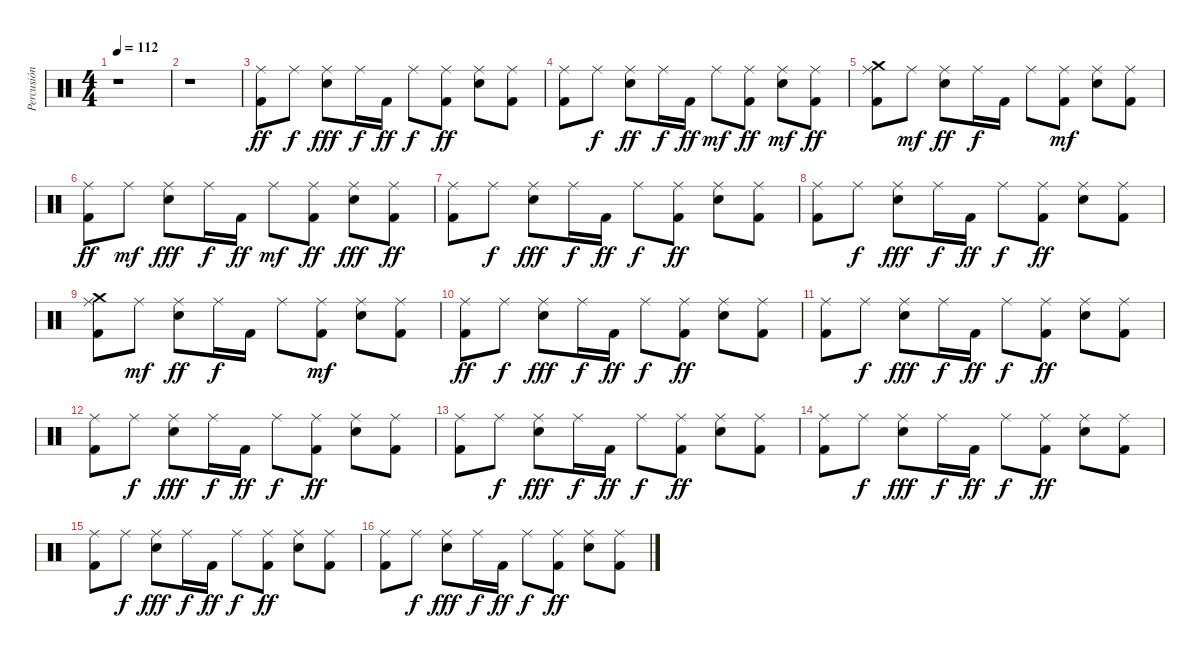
\track ("Percusión" "Percusión") {instrument percussion}
\staff {score}
\articulation defaults
\ts (4 4)
\tempo 112
\clef neutral
\ks c
r.1{dy ff} |
r.1 |
("Kick (hit) 2" "Ride (middle)").8 "Ride (middle)".8{dy f} ("Snare (hit) 2" "Ride (middle)").8{dy fff} "Ride (middle)".16{dy f} "Kick (hit) 2".16{dy ff} "Ride (middle)".8{dy f} ("Kick (hit) 2" "Ride (middle)").8{dy ff} ("Snare (hit) 2" "Ride (middle)").8 ("Kick (hit) 2" "Ride (middle)").8 |
("Kick (hit) 2" "Ride (middle)").8 "Ride (middle)".8{dy f} ("Snare (hit) 2" "Ride (middle)").8{dy ff} "Ride (middle)".16{dy f} "Kick (hit) 2".16{dy ff} "Ride (middle)".8{dy mf} ("Kick (hit) 2" "Ride (middle)").8{dy ff} ("Snare (hit) 2" "Ride (middle)").8{dy mf} ("Kick (hit) 2" "Ride (middle)").8{dy ff} |
("Kick (hit) 2" "Ride (middle)" "Crash medium (hit)").8 "Ride (middle)".8{dy mf} ("Snare (hit) 2" "Ride (middle)").8{dy ff} "Ride (middle)".16{dy f} "Kick (hit) 2".16 "Ride (middle)".8 ("Kick (hit) 2" "Ride (middle)").8{dy mf} ("Snare (hit) 2" "Ride (middle)").8 ("Kick (hit) 2" "Ride (middle)").8 |
("Kick (hit) 2" "Ride (middle)").8{dy ff} "Ride (middle)".8{dy mf} ("Snare (hit) 2" "Ride (middle)").8{dy fff} "Ride (middle)".16{dy f} "Kick (hit) 2".16{dy ff} "Ride (middle)".8{dy mf} ("Kick (hit) 2" "Ride (middle)").8{dy ff} ("Snare (hit) 2" "Ride (middle)").8{dy fff} ("Kick (hit) 2" "Ride (middle)").8{dy ff} |
("Kick (hit) 2" "Ride (middle)").8 "Ride (middle)".8{dy f} ("Snare (hit) 2" "Ride (middle)").8{dy fff} "Ride (middle)".16{dy f} "Kick (hit) 2".16{dy ff} "Ride (middle)".8{dy f} ("Kick (hit) 2" "Ride (middle)").8{dy ff} ("Snare (hit) 2" "Ride (middle)").8 ("Kick (hit) 2" "Ride (middle)").8 |
("Kick (hit) 2" "Ride (middle)").8 "Ride (middle)".8{dy f} ("Snare (hit) 2" "Ride (middle)").8{dy fff} "Ride (middle)".16{dy f} "Kick (hit) 2".16{dy ff} "Ride (middle)".8{dy f} ("Kick (hit) 2" "Ride (middle)").8{dy ff} ("Snare (hit) 2" "Ride (middle)").8 ("Kick (hit) 2" "Ride (middle)").8 |
("Kick (hit) 2" "Ride (middle)" "Crash medium (hit)").8 "Ride (middle)".8{dy mf} ("Snare (hit) 2" "Ride (middle)").8{dy ff} "Ride (middle)".16{dy f} "Kick (hit) 2".16 "Ride (middle)".8 ("Kick (hit) 2" "Ride (middle)").8{dy mf} ("Snare (hit) 2" "Ride (middle)").8 ("Kick (hit) 2" "Ride (middle)").8 |
("Kick (hit) 2" "Ride (middle)").8{dy ff} "Ride (middle)".8{dy f} ("Snare (hit) 2" "Ride (middle)").8{dy fff} "Ride (middle)".16{dy f} "Kick (hit) 2".16{dy ff} "Ride (middle)".8{dy f} ("Kick (hit) 2" "Ride (middle)").8{dy ff} ("Snare (hit) 2" "Ride (middle)").8 ("Kick (hit) 2" "Ride (middle)").8 |
("Kick (hit) 2" "Ride (middle)").8 "Ride (middle)".8{dy f} ("Snare (hit) 2" "Ride (middle)").8{dy fff} "Ride (middle)".16{dy f} "Kick (hit) 2".16{dy ff} "Ride (middle)".8{dy f} ("Kick (hit) 2" "Ride (middle)").8{dy ff} ("Snare (hit) 2" "Ride (middle)").8 ("Kick (hit) 2" "Ride (middle)").8 |
("Kick (hit) 2" "Ride (middle)").8 "Ride (middle)".8{dy f} ("Snare (hit) 2" "Ride (middle)").8{dy fff} "Ride (middle)".16{dy f} "Kick (hit) 2".16{dy ff} "Ride (middle)".8{dy f} ("Kick (hit) 2" "Ride (middle)").8{dy ff} ("Snare (hit) 2" "Ride (middle)").8 ("Kick (hit) 2" "Ride (middle)").8 |
("Kick (hit) 2" "Ride (middle)").8 "Ride (middle)".8{dy f} ("Snare (hit) 2" "Ride (middle)").8{dy fff} "Ride (middle)".16{dy f} "Kick (hit) 2".16{dy ff} "Ride (middle)".8{dy f} ("Kick (hit) 2" "Ride (middle)").8{dy ff} ("Snare (hit) 2" "Ride (middle)").8 ("Kick (hit) 2" "Ride (middle)").8 |
("Kick (hit) 2" "Ride (middle)").8 "Ride (middle)".8{dy f} ("Snare (hit) 2" "Ride (middle)").8{dy fff} "Ride (middle)".16{dy f} "Kick (hit) 2".16{dy ff} "Ride (middle)".8{dy f} ("Kick (hit) 2" "Ride (middle)").8{dy ff} ("Snare (hit) 2" "Ride (middle)").8 ("Kick (hit) 2" "Ride (middle)").8 |
("Kick (hit) 2" "Ride (middle)").8 "Ride (middle)".8{dy f} ("Snare (hit) 2" "Ride (middle)").8{dy fff} "Ride (middle)".16{dy f} "Kick (hit) 2".16{dy ff} "Ride (middle)".8{dy f} ("Kick (hit) 2" "Ride (middle)").8{dy ff} ("Snare (hit) 2" "Ride (middle)").8 ("Kick (hit) 2" "Ride (middle)").8 |
("Kick (hit) 2" "Ride (middle)").8 "Ride (middle)".8{dy f} ("Snare (hit) 2" "Ride (middle)").8{dy fff} "Ride (middle)".16{dy f} "Kick (hit) 2".16{dy ff} "Ride (middle)".8{dy f} ("Kick (hit) 2" "Ride (middle)").8{dy ff} ("Snare (hit) 2" "Ride (middle)").8 ("Kick (hit) 2" "Ride (middle)").8
